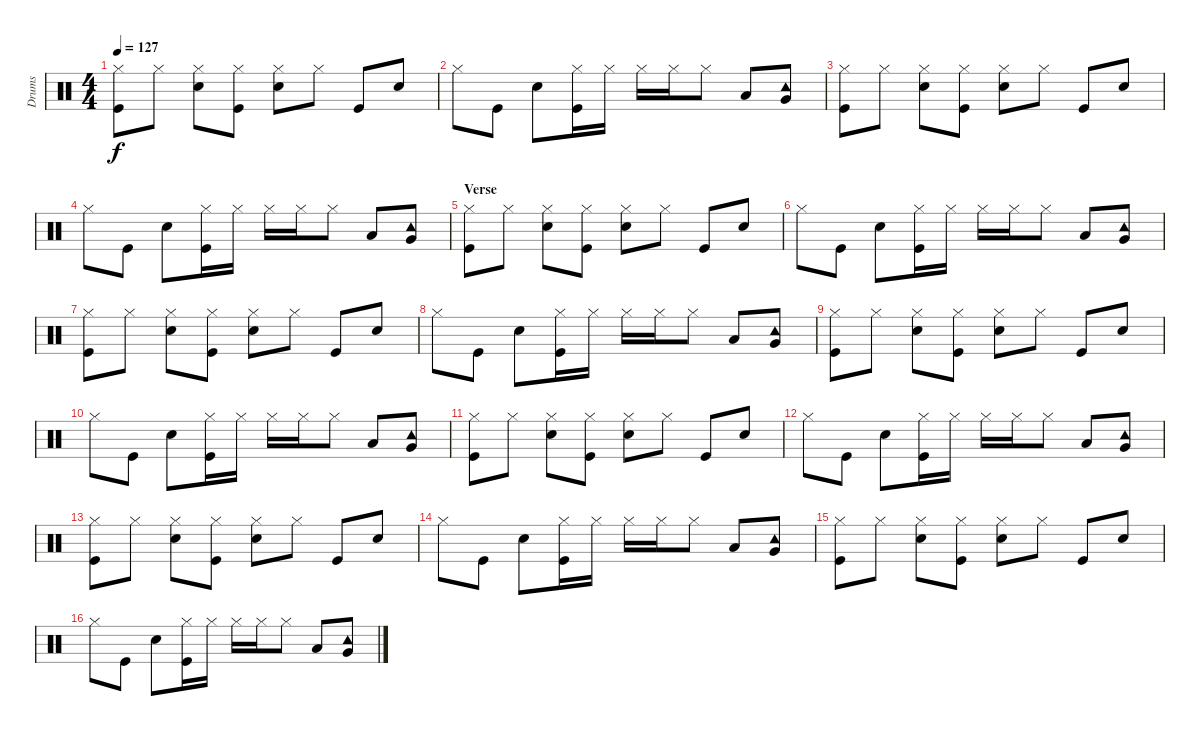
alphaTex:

\track ("Drums" "Drums") {instrument percussion}
\staff {score}
\articulation defaults
\ts (4 4)
\tempo 127
\clef neutral
\ks c
("Hi-Hat (closed)" "Kick (hit)").8{dy f} "Hi-Hat (closed)".8 ("Hi-Hat (closed)" "Snare (hit) 2").8 ("Hi-Hat (closed)" "Kick (hit)").8 ("Hi-Hat (closed)" "Snare (hit) 2").8 "Hi-Hat (closed)".8 "Kick (hit)".8 "Snare (hit) 2".8 |
"Hi-Hat (closed)".8 "Kick (hit)".8 "Snare (hit) 2".8 ("Hi-Hat (closed)" "Kick (hit)").16 "Hi-Hat (closed)".16 "Hi-Hat (closed)".16 "Hi-Hat (closed)".16 "Hi-Hat (closed)".8 "Low Tom (hit)".8 ("Tambourine (hit)" "Very Low Tom (hit)").8 |
("Hi-Hat (closed)" "Kick (hit)").8 "Hi-Hat (closed)".8 ("Hi-Hat (closed)" "Snare (hit) 2").8 ("Hi-Hat (closed)" "Kick (hit)").8 ("Hi-Hat (closed)" "Snare (hit) 2").8 "Hi-Hat (closed)".8 "Kick (hit)".8 "Snare (hit) 2".8 |
"Hi-Hat (closed)".8 "Kick (hit)".8 "Snare (hit) 2".8 ("Hi-Hat (closed)" "Kick (hit)").16 "Hi-Hat (closed)".16 "Hi-Hat (closed)".16 "Hi-Hat (closed)".16 "Hi-Hat (closed)".8 "Low Tom (hit)".8 ("Tambourine (hit)" "Very Low Tom (hit)").8 |
\section ("" "Verse")
("Hi-Hat (closed)" "Kick (hit)").8 "Hi-Hat (closed)".8 ("Hi-Hat (closed)" "Snare (hit) 2").8 ("Hi-Hat (closed)" "Kick (hit)").8 ("Hi-Hat (closed)" "Snare (hit) 2").8 "Hi-Hat (closed)".8 "Kick (hit)".8 "Snare (hit) 2".8 |
"Hi-Hat (closed)".8 "Kick (hit)".8 "Snare (hit) 2".8 ("Hi-Hat (closed)" "Kick (hit)").16 "Hi-Hat (closed)".16 "Hi-Hat (closed)".16 "Hi-Hat (closed)".16 "Hi-Hat (closed)".8 "Low Tom (hit)".8 ("Tambourine (hit)" "Very Low Tom (hit)").8 |
("Hi-Hat (closed)" "Kick (hit)").8 "Hi-Hat (closed)".8 ("Hi-Hat (closed)" "Snare (hit) 2").8 ("Hi-Hat (closed)" "Kick (hit)").8 ("Hi-Hat (closed)" "Snare (hit) 2").8 "Hi-Hat (closed)".8 "Kick (hit)".8 "Snare (hit) 2".8 |
"Hi-Hat (closed)".8 "Kick (hit)".8 "Snare (hit) 2".8 ("Hi-Hat (closed)" "Kick (hit)").16 "Hi-Hat (closed)".16 "Hi-Hat (closed)".16 "Hi-Hat (closed)".16 "Hi-Hat (closed)".8 "Low Tom (hit)".8 ("Tambourine (hit)" "Very Low Tom (hit)").8 |
("Hi-Hat (closed)" "Kick (hit)").8 "Hi-Hat (closed)".8 ("Hi-Hat (closed)" "Snare (hit) 2").8 ("Hi-Hat (closed)" "Kick (hit)").8 ("Hi-Hat (closed)" "Snare (hit) 2").8 "Hi-Hat (closed)".8 "Kick (hit)".8 "Snare (hit) 2".8 |
"Hi-Hat (closed)".8 "Kick (hit)".8 "Snare (hit) 2".8 ("Hi-Hat (closed)" "Kick (hit)").16 "Hi-Hat (closed)".16 "Hi-Hat (closed)".16 "Hi-Hat (closed)".16 "Hi-Hat (closed)".8 "Low Tom (hit)".8 ("Tambourine (hit)" "Very Low Tom (hit)").8 |
("Hi-Hat (closed)" "Kick (hit)").8 "Hi-Hat (closed)".8 ("Hi-Hat (closed)" "Snare (hit) 2").8 ("Hi-Hat (closed)" "Kick (hit)").8 ("Hi-Hat (closed)" "Snare (hit) 2").8 "Hi-Hat (closed)".8 "Kick (hit)".8 "Snare (hit) 2".8 |
"Hi-Hat (closed)".8 "Kick (hit)".8 "Snare (hit) 2".8 ("Hi-Hat (closed)" "Kick (hit)").16 "Hi-Hat (closed)".16 "Hi-Hat (closed)".16 "Hi-Hat (closed)".16 "Hi-Hat (closed)".8 "Low Tom (hit)".8 ("Tambourine (hit)" "Very Low Tom (hit)").8 |
("Hi-Hat (closed)" "Kick (hit)").8 "Hi-Hat (closed)".8 ("Hi-Hat (closed)" "Snare (hit) 2").8 ("Hi-Hat (closed)" "Kick (hit)").8 ("Hi-Hat (closed)" "Snare (hit) 2").8 "Hi-Hat (closed)".8 "Kick (hit)".8 "Snare (hit) 2".8 |
"Hi-Hat (closed)".8 "Kick (hit)".8 "Snare (hit) 2".8 ("Hi-Hat (closed)" "Kick (hit)").16 "Hi-Hat (closed)".16 "Hi-Hat (closed)".16 "Hi-Hat (closed)".16 "Hi-Hat (closed)".8 "Low Tom (hit)".8 ("Tambourine (hit)" "Very Low Tom (hit)").8 |
("Hi-Hat (closed)" "Kick (hit)").8 "Hi-Hat (closed)".8 ("Hi-Hat (closed)" "Snare (hit) 2").8 ("Hi-Hat (closed)" "Kick (hit)").8 ("Hi-Hat (closed)" "Snare (hit) 2").8 "Hi-Hat (closed)".8 "Kick (hit)".8 "Snare (hit) 2".8 |
"Hi-Hat (closed)".8 "Kick (hit)".8 "Snare (hit) 2".8 ("Hi-Hat (closed)" "Kick (hit)").16 "Hi-Hat (closed)".16 "Hi-Hat (closed)".16 "Hi-Hat (closed)".16 "Hi-Hat (closed)".8 "Low Tom (hit)".8 ("Tambourine (hit)" "Very Low Tom (hit)").8
